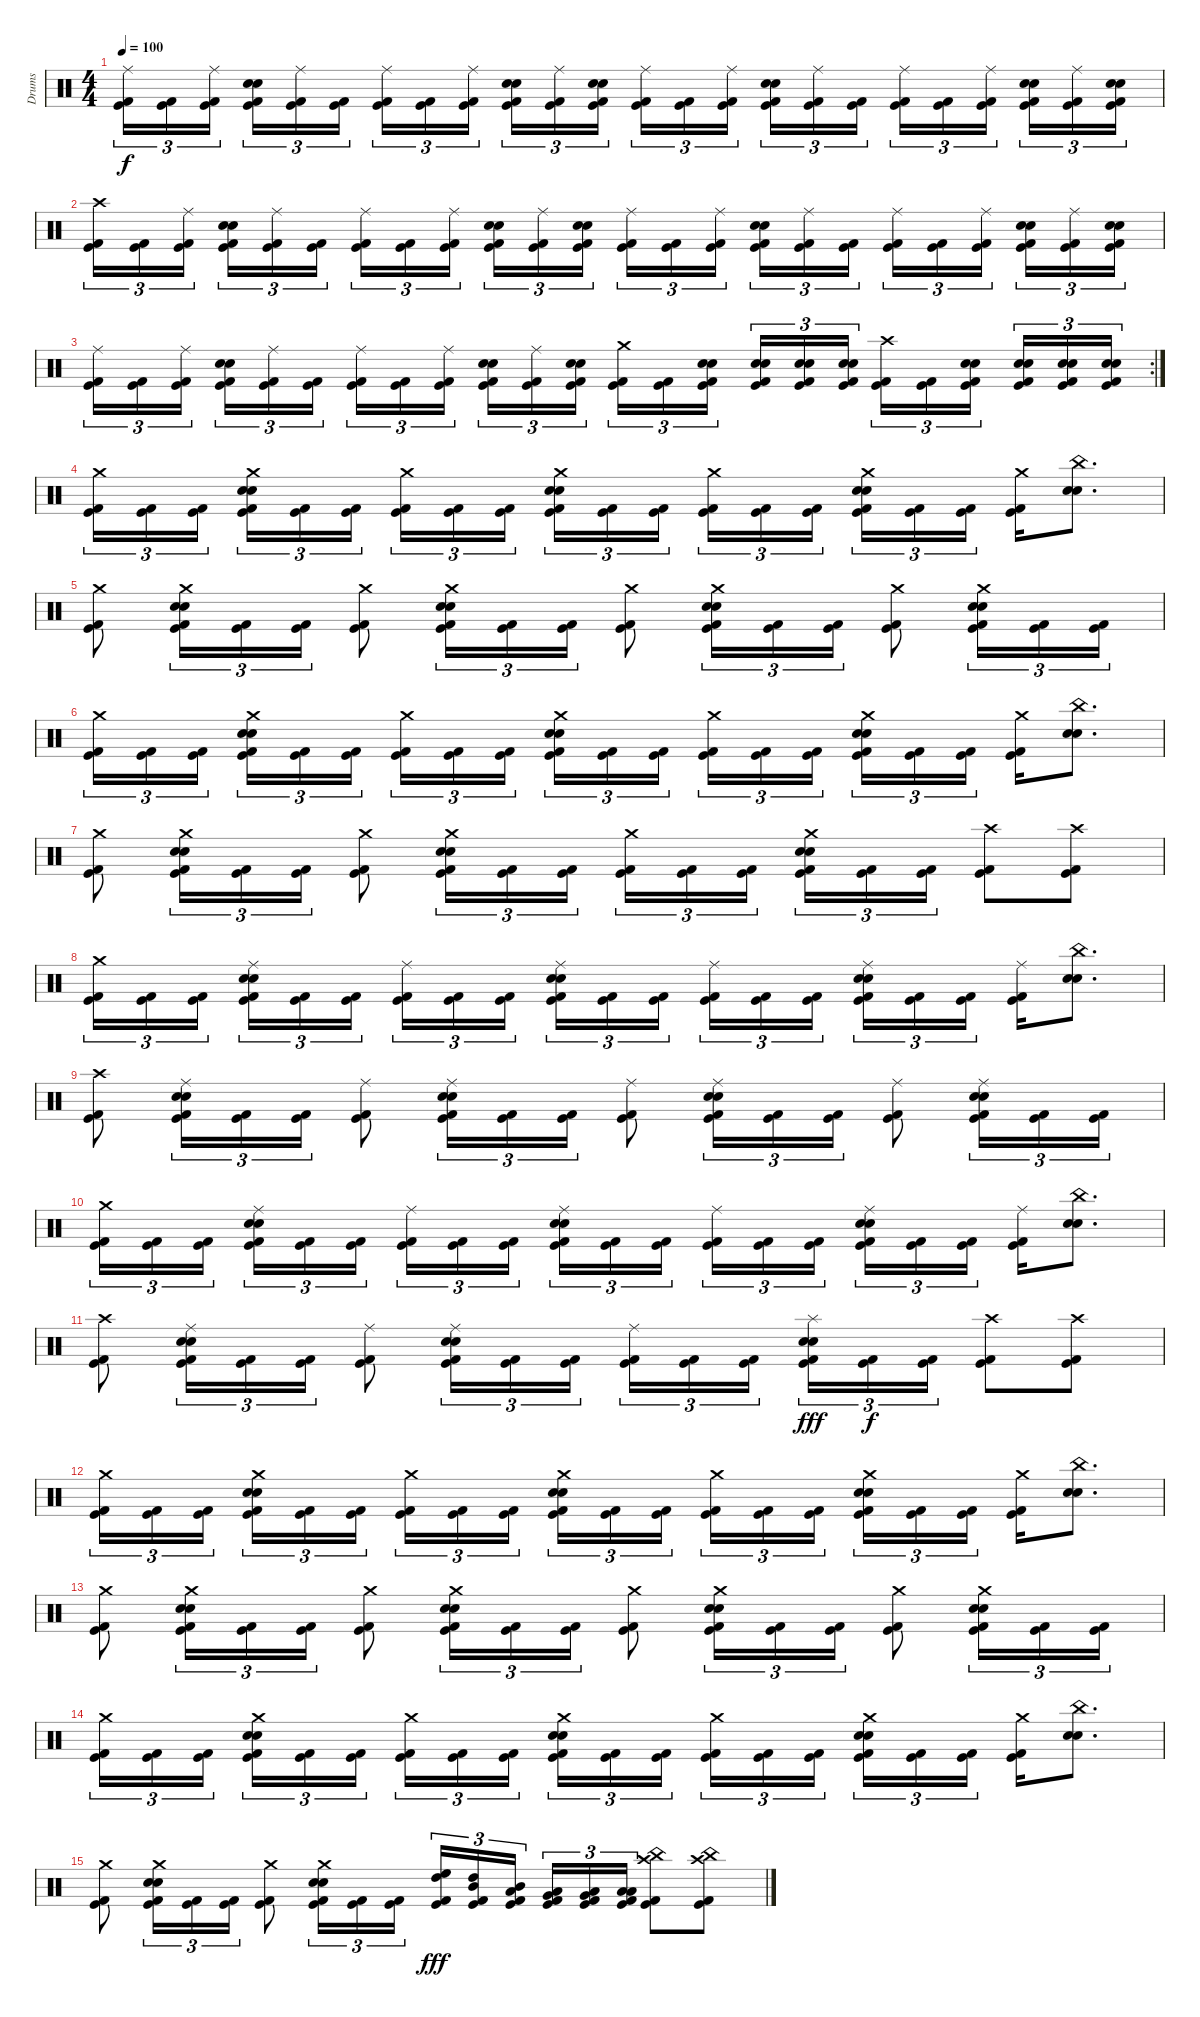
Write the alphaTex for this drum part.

\track ("Drums" "Drums") {instrument percussion}
\staff {score}
\articulation defaults
\ts (4 4)
\tempo 100
\clef neutral
\ks c
("Ride (middle)" "Kick (hit)" "Kick (hit) 2").16{tu (3 2) dy f} ("Kick (hit)" "Kick (hit) 2").16{tu (3 2)} ("Ride (middle)" "Kick (hit)" "Kick (hit) 2").16{tu (3 2) beam splitsecondary} ("Electric Snare (hit)" "Snare (hit) 2" "Kick (hit)" "Kick (hit) 2").16{tu (3 2)} ("Ride (middle)" "Kick (hit)" "Kick (hit) 2").16{tu (3 2)} ("Kick (hit)" "Kick (hit) 2").16{tu (3 2)} ("Ride (middle)" "Kick (hit)" "Kick (hit) 2").16{tu (3 2)} ("Kick (hit)" "Kick (hit) 2").16{tu (3 2)} ("Ride (middle)" "Kick (hit)" "Kick (hit) 2").16{tu (3 2) beam splitsecondary} ("Electric Snare (hit)" "Snare (hit) 2" "Kick (hit)" "Kick (hit) 2").16{tu (3 2)} ("Ride (middle)" "Kick (hit)" "Kick (hit) 2").16{tu (3 2)} ("Electric Snare (hit)" "Snare (hit) 2" "Kick (hit)" "Kick (hit) 2").16{tu (3 2)} ("Ride (middle)" "Kick (hit)" "Kick (hit) 2").16{tu (3 2)} ("Kick (hit)" "Kick (hit) 2").16{tu (3 2)} ("Ride (middle)" "Kick (hit)" "Kick (hit) 2").16{tu (3 2) beam splitsecondary} ("Electric Snare (hit)" "Snare (hit) 2" "Kick (hit)" "Kick (hit) 2").16{tu (3 2)} ("Ride (middle)" "Kick (hit)" "Kick (hit) 2").16{tu (3 2)} ("Kick (hit)" "Kick (hit) 2").16{tu (3 2)} ("Ride (middle)" "Kick (hit)" "Kick (hit) 2").16{tu (3 2)} ("Kick (hit)" "Kick (hit) 2").16{tu (3 2)} ("Ride (middle)" "Kick (hit)" "Kick (hit) 2").16{tu (3 2) beam splitsecondary} ("Electric Snare (hit)" "Snare (hit) 2" "Kick (hit)" "Kick (hit) 2").16{tu (3 2)} ("Ride (middle)" "Kick (hit)" "Kick (hit) 2").16{tu (3 2)} ("Electric Snare (hit)" "Snare (hit) 2" "Kick (hit)" "Kick (hit) 2").16{tu (3 2)} |
("Crash high (hit)" "Kick (hit)" "Kick (hit) 2").16{tu (3 2)} ("Kick (hit)" "Kick (hit) 2").16{tu (3 2)} ("Ride (middle)" "Kick (hit)" "Kick (hit) 2").16{tu (3 2) beam splitsecondary} ("Electric Snare (hit)" "Snare (hit) 2" "Kick (hit)" "Kick (hit) 2").16{tu (3 2)} ("Ride (middle)" "Kick (hit)" "Kick (hit) 2").16{tu (3 2)} ("Kick (hit)" "Kick (hit) 2").16{tu (3 2)} ("Ride (middle)" "Kick (hit)" "Kick (hit) 2").16{tu (3 2)} ("Kick (hit)" "Kick (hit) 2").16{tu (3 2)} ("Ride (middle)" "Kick (hit)" "Kick (hit) 2").16{tu (3 2) beam splitsecondary} ("Electric Snare (hit)" "Snare (hit) 2" "Kick (hit)" "Kick (hit) 2").16{tu (3 2)} ("Ride (middle)" "Kick (hit)" "Kick (hit) 2").16{tu (3 2)} ("Electric Snare (hit)" "Snare (hit) 2" "Kick (hit)" "Kick (hit) 2").16{tu (3 2)} ("Ride (middle)" "Kick (hit)" "Kick (hit) 2").16{tu (3 2)} ("Kick (hit)" "Kick (hit) 2").16{tu (3 2)} ("Ride (middle)" "Kick (hit)" "Kick (hit) 2").16{tu (3 2) beam splitsecondary} ("Electric Snare (hit)" "Snare (hit) 2" "Kick (hit)" "Kick (hit) 2").16{tu (3 2)} ("Ride (middle)" "Kick (hit)" "Kick (hit) 2").16{tu (3 2)} ("Kick (hit)" "Kick (hit) 2").16{tu (3 2)} ("Ride (middle)" "Kick (hit)" "Kick (hit) 2").16{tu (3 2)} ("Kick (hit)" "Kick (hit) 2").16{tu (3 2)} ("Ride (middle)" "Kick (hit)" "Kick (hit) 2").16{tu (3 2) beam splitsecondary} ("Electric Snare (hit)" "Snare (hit) 2" "Kick (hit)" "Kick (hit) 2").16{tu (3 2)} ("Ride (middle)" "Kick (hit)" "Kick (hit) 2").16{tu (3 2)} ("Electric Snare (hit)" "Snare (hit) 2" "Kick (hit)" "Kick (hit) 2").16{tu (3 2)} |
\rc 2
("Ride (middle)" "Kick (hit)" "Kick (hit) 2").16{tu (3 2)} ("Kick (hit)" "Kick (hit) 2").16{tu (3 2)} ("Ride (middle)" "Kick (hit)" "Kick (hit) 2").16{tu (3 2) beam splitsecondary} ("Electric Snare (hit)" "Snare (hit) 2" "Kick (hit)" "Kick (hit) 2").16{tu (3 2)} ("Ride (middle)" "Kick (hit)" "Kick (hit) 2").16{tu (3 2)} ("Kick (hit)" "Kick (hit) 2").16{tu (3 2)} ("Ride (middle)" "Kick (hit)" "Kick (hit) 2").16{tu (3 2)} ("Kick (hit)" "Kick (hit) 2").16{tu (3 2)} ("Ride (middle)" "Kick (hit)" "Kick (hit) 2").16{tu (3 2) beam splitsecondary} ("Electric Snare (hit)" "Snare (hit) 2" "Kick (hit)" "Kick (hit) 2").16{tu (3 2)} ("Ride (middle)" "Kick (hit)" "Kick (hit) 2").16{tu (3 2)} ("Electric Snare (hit)" "Snare (hit) 2" "Kick (hit)" "Kick (hit) 2").16{tu (3 2)} ("Crash medium (hit)" "Kick (hit)" "Kick (hit) 2").16{tu (3 2)} ("Kick (hit)" "Kick (hit) 2").16{tu (3 2)} ("Electric Snare (hit)" "Snare (hit) 2" "Kick (hit)" "Kick (hit) 2").16{tu (3 2) beam splitsecondary} ("Electric Snare (hit)" "Snare (hit) 2" "Kick (hit)" "Kick (hit) 2").16{tu (3 2)} ("Electric Snare (hit)" "Snare (hit) 2" "Kick (hit)" "Kick (hit) 2").16{tu (3 2)} ("Electric Snare (hit)" "Snare (hit) 2" "Kick (hit)" "Kick (hit) 2").16{tu (3 2)} ("Crash high (hit)" "Kick (hit)" "Kick (hit) 2").16{tu (3 2)} ("Kick (hit)" "Kick (hit) 2").16{tu (3 2)} ("Electric Snare (hit)" "Snare (hit) 2" "Kick (hit)" "Kick (hit) 2").16{tu (3 2) beam splitsecondary} ("Electric Snare (hit)" "Snare (hit) 2" "Kick (hit)" "Kick (hit) 2").16{tu (3 2)} ("Electric Snare (hit)" "Snare (hit) 2" "Kick (hit)" "Kick (hit) 2").16{tu (3 2)} ("Electric Snare (hit)" "Snare (hit) 2" "Kick (hit)" "Kick (hit) 2").16{tu (3 2)} |
("Crash medium (hit)" "Kick (hit)" "Kick (hit) 2").16{tu (3 2)} ("Kick (hit)" "Kick (hit) 2").16{tu (3 2)} ("Kick (hit)" "Kick (hit) 2").16{tu (3 2) beam splitsecondary} ("Crash medium (hit)" "Electric Snare (hit)" "Snare (hit) 2" "Kick (hit)" "Kick (hit) 2").16{tu (3 2)} ("Kick (hit)" "Kick (hit) 2").16{tu (3 2)} ("Kick (hit)" "Kick (hit) 2").16{tu (3 2)} ("Crash medium (hit)" "Kick (hit)" "Kick (hit) 2").16{tu (3 2)} ("Kick (hit)" "Kick (hit) 2").16{tu (3 2)} ("Kick (hit)" "Kick (hit) 2").16{tu (3 2) beam splitsecondary} ("Crash medium (hit)" "Snare (hit) 2" "Electric Snare (hit)" "Kick (hit)" "Kick (hit) 2").16{tu (3 2)} ("Kick (hit)" "Kick (hit) 2").16{tu (3 2)} ("Kick (hit)" "Kick (hit) 2").16{tu (3 2)} ("Crash medium (hit)" "Kick (hit)" "Kick (hit) 2").16{tu (3 2)} ("Kick (hit)" "Kick (hit) 2").16{tu (3 2)} ("Kick (hit)" "Kick (hit) 2").16{tu (3 2) beam splitsecondary} ("Crash medium (hit)" "Electric Snare (hit)" "Snare (hit) 2" "Kick (hit)" "Kick (hit) 2").16{tu (3 2)} ("Kick (hit)" "Kick (hit) 2").16{tu (3 2)} ("Kick (hit)" "Kick (hit) 2").16{tu (3 2)} ("Crash medium (hit)" "Kick (hit)" "Kick (hit) 2").16 ("China (hit)" "Snare (hit) 2" "Electric Snare (hit)").8{d} |
("Crash medium (hit)" "Kick (hit)" "Kick (hit) 2").8 ("Crash medium (hit)" "Snare (hit) 2" "Electric Snare (hit)" "Kick (hit) 2" "Kick (hit)").16{tu (3 2)} ("Kick (hit) 2" "Kick (hit)").16{tu (3 2)} ("Kick (hit) 2" "Kick (hit)").16{tu (3 2)} ("Crash medium (hit)" "Kick (hit)" "Kick (hit) 2").8 ("Crash medium (hit)" "Electric Snare (hit)" "Snare (hit) 2" "Kick (hit)" "Kick (hit) 2").16{tu (3 2)} ("Kick (hit)" "Kick (hit) 2").16{tu (3 2)} ("Kick (hit)" "Kick (hit) 2").16{tu (3 2)} ("Crash medium (hit)" "Kick (hit)" "Kick (hit) 2").8 ("Crash medium (hit)" "Electric Snare (hit)" "Snare (hit) 2" "Kick (hit)" "Kick (hit) 2").16{tu (3 2)} ("Kick (hit)" "Kick (hit) 2").16{tu (3 2)} ("Kick (hit)" "Kick (hit) 2").16{tu (3 2)} ("Crash medium (hit)" "Kick (hit)" "Kick (hit) 2").8 ("Crash medium (hit)" "Electric Snare (hit)" "Snare (hit) 2" "Kick (hit)" "Kick (hit) 2").16{tu (3 2)} ("Kick (hit)" "Kick (hit) 2").16{tu (3 2)} ("Kick (hit)" "Kick (hit) 2").16{tu (3 2)} |
("Crash medium (hit)" "Kick (hit)" "Kick (hit) 2").16{tu (3 2)} ("Kick (hit)" "Kick (hit) 2").16{tu (3 2)} ("Kick (hit)" "Kick (hit) 2").16{tu (3 2) beam splitsecondary} ("Crash medium (hit)" "Electric Snare (hit)" "Snare (hit) 2" "Kick (hit)" "Kick (hit) 2").16{tu (3 2)} ("Kick (hit)" "Kick (hit) 2").16{tu (3 2)} ("Kick (hit)" "Kick (hit) 2").16{tu (3 2)} ("Crash medium (hit)" "Kick (hit)" "Kick (hit) 2").16{tu (3 2)} ("Kick (hit)" "Kick (hit) 2").16{tu (3 2)} ("Kick (hit)" "Kick (hit) 2").16{tu (3 2) beam splitsecondary} ("Crash medium (hit)" "Snare (hit) 2" "Electric Snare (hit)" "Kick (hit)" "Kick (hit) 2").16{tu (3 2)} ("Kick (hit)" "Kick (hit) 2").16{tu (3 2)} ("Kick (hit)" "Kick (hit) 2").16{tu (3 2)} ("Crash medium (hit)" "Kick (hit)" "Kick (hit) 2").16{tu (3 2)} ("Kick (hit)" "Kick (hit) 2").16{tu (3 2)} ("Kick (hit)" "Kick (hit) 2").16{tu (3 2) beam splitsecondary} ("Crash medium (hit)" "Electric Snare (hit)" "Snare (hit) 2" "Kick (hit)" "Kick (hit) 2").16{tu (3 2)} ("Kick (hit)" "Kick (hit) 2").16{tu (3 2)} ("Kick (hit)" "Kick (hit) 2").16{tu (3 2)} ("Crash medium (hit)" "Kick (hit)" "Kick (hit) 2").16 ("China (hit)" "Snare (hit) 2" "Electric Snare (hit)").8{d} |
("Crash medium (hit)" "Kick (hit)" "Kick (hit) 2").8 ("Crash medium (hit)" "Snare (hit) 2" "Electric Snare (hit)" "Kick (hit) 2" "Kick (hit)").16{tu (3 2)} ("Kick (hit) 2" "Kick (hit)").16{tu (3 2)} ("Kick (hit) 2" "Kick (hit)").16{tu (3 2)} ("Crash medium (hit)" "Kick (hit)" "Kick (hit) 2").8 ("Crash medium (hit)" "Electric Snare (hit)" "Snare (hit) 2" "Kick (hit)" "Kick (hit) 2").16{tu (3 2)} ("Kick (hit)" "Kick (hit) 2").16{tu (3 2)} ("Kick (hit)" "Kick (hit) 2").16{tu (3 2)} ("Crash medium (hit)" "Kick (hit)" "Kick (hit) 2").16{tu (3 2)} ("Kick (hit)" "Kick (hit) 2").16{tu (3 2)} ("Kick (hit)" "Kick (hit) 2").16{tu (3 2) beam splitsecondary} ("Crash medium (hit)" "Electric Snare (hit)" "Snare (hit) 2" "Kick (hit)" "Kick (hit) 2").16{tu (3 2)} ("Kick (hit)" "Kick (hit) 2").16{tu (3 2)} ("Kick (hit)" "Kick (hit) 2").16{tu (3 2)} ("Crash high (hit)" "Kick (hit)" "Kick (hit) 2").8 ("Crash high (hit)" "Kick (hit)" "Kick (hit) 2").8 |
("Crash medium (hit)" "Kick (hit)" "Kick (hit) 2").16{tu (3 2)} ("Kick (hit)" "Kick (hit) 2").16{tu (3 2)} ("Kick (hit)" "Kick (hit) 2").16{tu (3 2) beam splitsecondary} ("Ride (middle)" "Electric Snare (hit)" "Snare (hit) 2" "Kick (hit)" "Kick (hit) 2").16{tu (3 2)} ("Kick (hit)" "Kick (hit) 2").16{tu (3 2)} ("Kick (hit)" "Kick (hit) 2").16{tu (3 2)} ("Ride (middle)" "Kick (hit)" "Kick (hit) 2").16{tu (3 2)} ("Kick (hit)" "Kick (hit) 2").16{tu (3 2)} ("Kick (hit)" "Kick (hit) 2").16{tu (3 2) beam splitsecondary} ("Ride (middle)" "Snare (hit) 2" "Electric Snare (hit)" "Kick (hit)" "Kick (hit) 2").16{tu (3 2)} ("Kick (hit)" "Kick (hit) 2").16{tu (3 2)} ("Kick (hit)" "Kick (hit) 2").16{tu (3 2)} ("Ride (middle)" "Kick (hit)" "Kick (hit) 2").16{tu (3 2)} ("Kick (hit)" "Kick (hit) 2").16{tu (3 2)} ("Kick (hit)" "Kick (hit) 2").16{tu (3 2) beam splitsecondary} ("Ride (middle)" "Electric Snare (hit)" "Snare (hit) 2" "Kick (hit)" "Kick (hit) 2").16{tu (3 2)} ("Kick (hit)" "Kick (hit) 2").16{tu (3 2)} ("Kick (hit)" "Kick (hit) 2").16{tu (3 2)} ("Ride (middle)" "Kick (hit)" "Kick (hit) 2").16 ("China (hit)" "Snare (hit) 2" "Electric Snare (hit)").8{d} |
("Crash high (hit)" "Kick (hit)" "Kick (hit) 2").8 ("Ride (middle)" "Snare (hit) 2" "Electric Snare (hit)" "Kick (hit) 2" "Kick (hit)").16{tu (3 2)} ("Kick (hit) 2" "Kick (hit)").16{tu (3 2)} ("Kick (hit) 2" "Kick (hit)").16{tu (3 2)} ("Ride (middle)" "Kick (hit)" "Kick (hit) 2").8 ("Ride (middle)" "Electric Snare (hit)" "Snare (hit) 2" "Kick (hit)" "Kick (hit) 2").16{tu (3 2)} ("Kick (hit)" "Kick (hit) 2").16{tu (3 2)} ("Kick (hit)" "Kick (hit) 2").16{tu (3 2)} ("Ride (middle)" "Kick (hit)" "Kick (hit) 2").8 ("Ride (middle)" "Electric Snare (hit)" "Snare (hit) 2" "Kick (hit)" "Kick (hit) 2").16{tu (3 2)} ("Kick (hit)" "Kick (hit) 2").16{tu (3 2)} ("Kick (hit)" "Kick (hit) 2").16{tu (3 2)} ("Ride (middle)" "Kick (hit)" "Kick (hit) 2").8 ("Ride (middle)" "Electric Snare (hit)" "Snare (hit) 2" "Kick (hit)" "Kick (hit) 2").16{tu (3 2)} ("Kick (hit)" "Kick (hit) 2").16{tu (3 2)} ("Kick (hit)" "Kick (hit) 2").16{tu (3 2)} |
("Crash medium (hit)" "Kick (hit)" "Kick (hit) 2").16{tu (3 2)} ("Kick (hit)" "Kick (hit) 2").16{tu (3 2)} ("Kick (hit)" "Kick (hit) 2").16{tu (3 2) beam splitsecondary} ("Ride (middle)" "Electric Snare (hit)" "Snare (hit) 2" "Kick (hit)" "Kick (hit) 2").16{tu (3 2)} ("Kick (hit)" "Kick (hit) 2").16{tu (3 2)} ("Kick (hit)" "Kick (hit) 2").16{tu (3 2)} ("Ride (middle)" "Kick (hit)" "Kick (hit) 2").16{tu (3 2)} ("Kick (hit)" "Kick (hit) 2").16{tu (3 2)} ("Kick (hit)" "Kick (hit) 2").16{tu (3 2) beam splitsecondary} ("Ride (middle)" "Snare (hit) 2" "Electric Snare (hit)" "Kick (hit)" "Kick (hit) 2").16{tu (3 2)} ("Kick (hit)" "Kick (hit) 2").16{tu (3 2)} ("Kick (hit)" "Kick (hit) 2").16{tu (3 2)} ("Ride (middle)" "Kick (hit)" "Kick (hit) 2").16{tu (3 2)} ("Kick (hit)" "Kick (hit) 2").16{tu (3 2)} ("Kick (hit)" "Kick (hit) 2").16{tu (3 2) beam splitsecondary} ("Ride (middle)" "Electric Snare (hit)" "Snare (hit) 2" "Kick (hit)" "Kick (hit) 2").16{tu (3 2)} ("Kick (hit)" "Kick (hit) 2").16{tu (3 2)} ("Kick (hit)" "Kick (hit) 2").16{tu (3 2)} ("Ride (middle)" "Kick (hit)" "Kick (hit) 2").16 ("China (hit)" "Snare (hit) 2" "Electric Snare (hit)").8{d} |
("Crash high (hit)" "Kick (hit)" "Kick (hit) 2").8 ("Ride (middle)" "Snare (hit) 2" "Electric Snare (hit)" "Kick (hit) 2" "Kick (hit)").16{tu (3 2)} ("Kick (hit) 2" "Kick (hit)").16{tu (3 2)} ("Kick (hit) 2" "Kick (hit)").16{tu (3 2)} ("Ride (middle)" "Kick (hit)" "Kick (hit) 2").8 ("Ride (middle)" "Electric Snare (hit)" "Snare (hit) 2" "Kick (hit)" "Kick (hit) 2").16{tu (3 2)} ("Kick (hit)" "Kick (hit) 2").16{tu (3 2)} ("Kick (hit)" "Kick (hit) 2").16{tu (3 2)} ("Ride (middle)" "Kick (hit)" "Kick (hit) 2").16{tu (3 2)} ("Kick (hit)" "Kick (hit) 2").16{tu (3 2)} ("Kick (hit)" "Kick (hit) 2").16{tu (3 2) beam splitsecondary} ("Splash (hit)" "Electric Snare (hit)" "Snare (hit) 2" "Kick (hit)" "Kick (hit) 2").16{tu (3 2) dy fff} ("Kick (hit)" "Kick (hit) 2").16{tu (3 2) dy f} ("Kick (hit)" "Kick (hit) 2").16{tu (3 2)} ("Crash high (hit)" "Kick (hit)" "Kick (hit) 2").8 ("Crash high (hit)" "Kick (hit)" "Kick (hit) 2").8 |
("Crash medium (hit)" "Kick (hit)" "Kick (hit) 2").16{tu (3 2)} ("Kick (hit)" "Kick (hit) 2").16{tu (3 2)} ("Kick (hit)" "Kick (hit) 2").16{tu (3 2) beam splitsecondary} ("Crash medium (hit)" "Electric Snare (hit)" "Snare (hit) 2" "Kick (hit)" "Kick (hit) 2").16{tu (3 2)} ("Kick (hit)" "Kick (hit) 2").16{tu (3 2)} ("Kick (hit)" "Kick (hit) 2").16{tu (3 2)} ("Crash medium (hit)" "Kick (hit)" "Kick (hit) 2").16{tu (3 2)} ("Kick (hit)" "Kick (hit) 2").16{tu (3 2)} ("Kick (hit)" "Kick (hit) 2").16{tu (3 2) beam splitsecondary} ("Crash medium (hit)" "Snare (hit) 2" "Electric Snare (hit)" "Kick (hit)" "Kick (hit) 2").16{tu (3 2)} ("Kick (hit)" "Kick (hit) 2").16{tu (3 2)} ("Kick (hit)" "Kick (hit) 2").16{tu (3 2)} ("Crash medium (hit)" "Kick (hit)" "Kick (hit) 2").16{tu (3 2)} ("Kick (hit)" "Kick (hit) 2").16{tu (3 2)} ("Kick (hit)" "Kick (hit) 2").16{tu (3 2) beam splitsecondary} ("Crash medium (hit)" "Electric Snare (hit)" "Snare (hit) 2" "Kick (hit)" "Kick (hit) 2").16{tu (3 2)} ("Kick (hit)" "Kick (hit) 2").16{tu (3 2)} ("Kick (hit)" "Kick (hit) 2").16{tu (3 2)} ("Crash medium (hit)" "Kick (hit)" "Kick (hit) 2").16 ("China (hit)" "Snare (hit) 2" "Electric Snare (hit)").8{d} |
("Crash medium (hit)" "Kick (hit)" "Kick (hit) 2").8 ("Crash medium (hit)" "Snare (hit) 2" "Electric Snare (hit)" "Kick (hit) 2" "Kick (hit)").16{tu (3 2)} ("Kick (hit) 2" "Kick (hit)").16{tu (3 2)} ("Kick (hit) 2" "Kick (hit)").16{tu (3 2)} ("Crash medium (hit)" "Kick (hit)" "Kick (hit) 2").8 ("Crash medium (hit)" "Electric Snare (hit)" "Snare (hit) 2" "Kick (hit)" "Kick (hit) 2").16{tu (3 2)} ("Kick (hit)" "Kick (hit) 2").16{tu (3 2)} ("Kick (hit)" "Kick (hit) 2").16{tu (3 2)} ("Crash medium (hit)" "Kick (hit)" "Kick (hit) 2").8 ("Crash medium (hit)" "Electric Snare (hit)" "Snare (hit) 2" "Kick (hit)" "Kick (hit) 2").16{tu (3 2)} ("Kick (hit)" "Kick (hit) 2").16{tu (3 2)} ("Kick (hit)" "Kick (hit) 2").16{tu (3 2)} ("Crash medium (hit)" "Kick (hit)" "Kick (hit) 2").8 ("Crash medium (hit)" "Electric Snare (hit)" "Snare (hit) 2" "Kick (hit)" "Kick (hit) 2").16{tu (3 2)} ("Kick (hit)" "Kick (hit) 2").16{tu (3 2)} ("Kick (hit)" "Kick (hit) 2").16{tu (3 2)} |
("Crash medium (hit)" "Kick (hit)" "Kick (hit) 2").16{tu (3 2)} ("Kick (hit)" "Kick (hit) 2").16{tu (3 2)} ("Kick (hit)" "Kick (hit) 2").16{tu (3 2) beam splitsecondary} ("Crash medium (hit)" "Electric Snare (hit)" "Snare (hit) 2" "Kick (hit)" "Kick (hit) 2").16{tu (3 2)} ("Kick (hit)" "Kick (hit) 2").16{tu (3 2)} ("Kick (hit)" "Kick (hit) 2").16{tu (3 2)} ("Crash medium (hit)" "Kick (hit)" "Kick (hit) 2").16{tu (3 2)} ("Kick (hit)" "Kick (hit) 2").16{tu (3 2)} ("Kick (hit)" "Kick (hit) 2").16{tu (3 2) beam splitsecondary} ("Crash medium (hit)" "Snare (hit) 2" "Electric Snare (hit)" "Kick (hit)" "Kick (hit) 2").16{tu (3 2)} ("Kick (hit)" "Kick (hit) 2").16{tu (3 2)} ("Kick (hit)" "Kick (hit) 2").16{tu (3 2)} ("Crash medium (hit)" "Kick (hit)" "Kick (hit) 2").16{tu (3 2)} ("Kick (hit)" "Kick (hit) 2").16{tu (3 2)} ("Kick (hit)" "Kick (hit) 2").16{tu (3 2) beam splitsecondary} ("Crash medium (hit)" "Electric Snare (hit)" "Snare (hit) 2" "Kick (hit)" "Kick (hit) 2").16{tu (3 2)} ("Kick (hit)" "Kick (hit) 2").16{tu (3 2)} ("Kick (hit)" "Kick (hit) 2").16{tu (3 2)} ("Crash medium (hit)" "Kick (hit)" "Kick (hit) 2").16 ("China (hit)" "Snare (hit) 2" "Electric Snare (hit)").8{d} |
("Crash medium (hit)" "Kick (hit)" "Kick (hit) 2").8 ("Crash medium (hit)" "Snare (hit) 2" "Electric Snare (hit)" "Kick (hit) 2" "Kick (hit)").16{tu (3 2)} ("Kick (hit) 2" "Kick (hit)").16{tu (3 2)} ("Kick (hit) 2" "Kick (hit)").16{tu (3 2)} ("Crash medium (hit)" "Kick (hit)" "Kick (hit) 2").8 ("Crash medium (hit)" "Electric Snare (hit)" "Snare (hit) 2" "Kick (hit)" "Kick (hit) 2").16{tu (3 2)} ("Kick (hit)" "Kick (hit) 2").16{tu (3 2)} ("Kick (hit)" "Kick (hit) 2").16{tu (3 2)} ("High Floor Tom (hit)" "High Tom (hit)" "Kick (hit)" "Kick (hit) 2").16{tu (3 2) dy fff} ("High Tom (hit)" "Mid Tom (hit)" "Kick (hit)" "Kick (hit) 2").16{tu (3 2)} ("Mid Tom (hit)" "Low Tom (hit)" "Kick (hit)" "Kick (hit) 2").16{tu (3 2) beam splitsecondary} ("Low Tom (hit)" "Very Low Tom (hit)" "Kick (hit)" "Kick (hit) 2").16{tu (3 2)} ("Very Low Tom (hit)" "Low Floor Tom (hit)" "Kick (hit)" "Kick (hit) 2").16{tu (3 2)} ("Low Floor Tom (hit)" "Low Floor Tom (hit)" "Kick (hit)" "Kick (hit) 2").16{tu (3 2)} ("Crash high (hit)" "China (hit)" "Kick (hit)" "Kick (hit) 2").8 ("Crash high (hit)" "China (hit)" "Kick (hit)" "Kick (hit) 2").8
